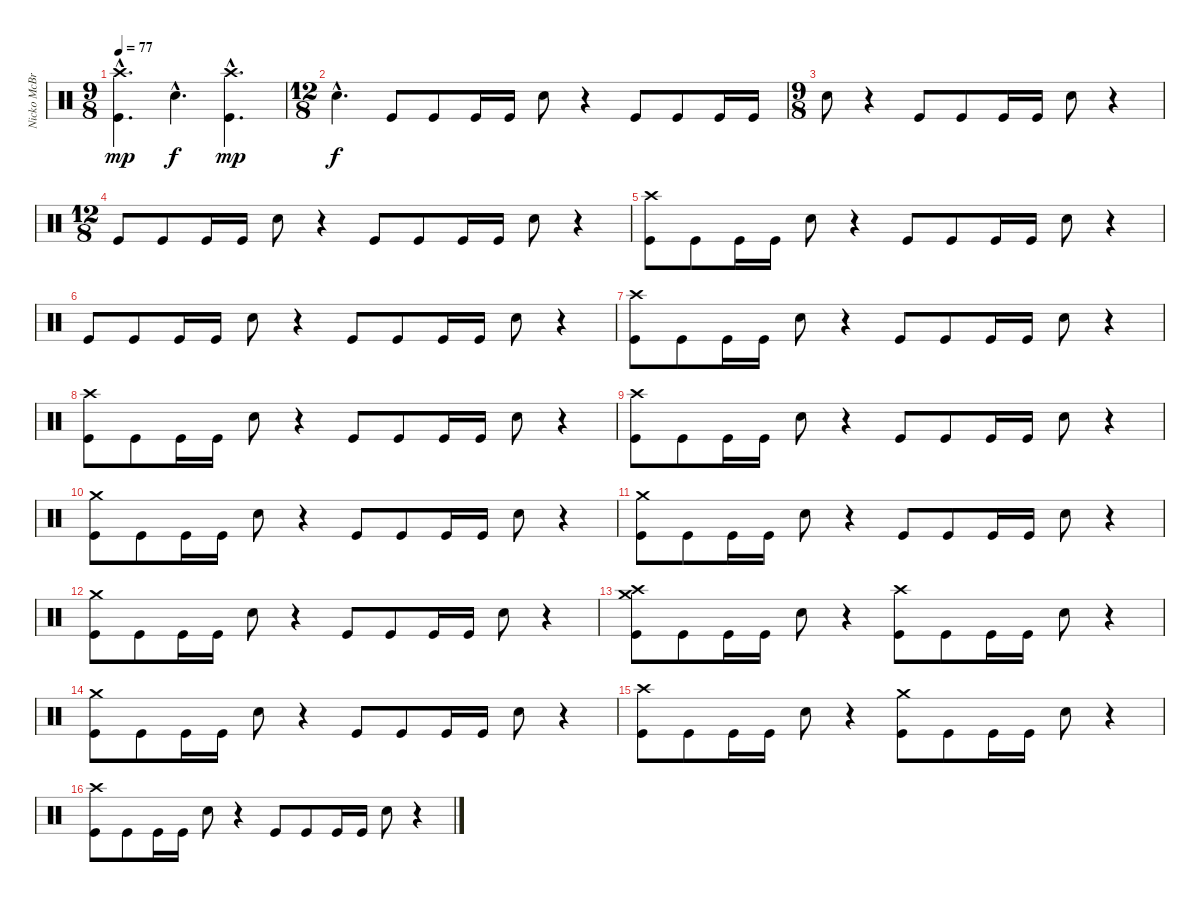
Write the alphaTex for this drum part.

\track ("Nicko McBrain" "Nicko McBr") {instrument percussion}
\staff {score}
\articulation defaults
\ts (9 8)
\tempo 77
\clef neutral
\ks c
("Crash high (hit)"{hac} "Kick (hit)"{hac}).4{d dy mp} "Snare (hit) 2"{hac}.4{d dy f} ("Crash high (hit)"{hac} "Kick (hit)"{hac}).4{d dy mp} |
\ts (12 8)
"Snare (hit) 2"{hac}.4{d dy f} "Kick (hit)".8 "Kick (hit)".8 "Kick (hit)".16 "Kick (hit)".16 "Snare (hit) 2".8 r.4 "Kick (hit)".8 "Kick (hit)".8 "Kick (hit)".16 "Kick (hit)".16 |
\ts (9 8)
"Snare (hit) 2".8 r.4 "Kick (hit)".8 "Kick (hit)".8 "Kick (hit)".16 "Kick (hit)".16 "Snare (hit) 2".8 r.4 |
\ts (12 8)
"Kick (hit)".8 "Kick (hit)".8 "Kick (hit)".16 "Kick (hit)".16 "Snare (hit) 2".8 r.4 "Kick (hit)".8 "Kick (hit)".8 "Kick (hit)".16 "Kick (hit)".16 "Snare (hit) 2".8 r.4 |
("Crash high (hit)" "Kick (hit)").8 "Kick (hit)".8 "Kick (hit)".16 "Kick (hit)".16 "Snare (hit) 2".8 r.4 "Kick (hit)".8 "Kick (hit)".8 "Kick (hit)".16 "Kick (hit)".16 "Snare (hit) 2".8 r.4 |
"Kick (hit)".8 "Kick (hit)".8 "Kick (hit)".16 "Kick (hit)".16 "Snare (hit) 2".8 r.4 "Kick (hit)".8 "Kick (hit)".8 "Kick (hit)".16 "Kick (hit)".16 "Snare (hit) 2".8 r.4 |
("Crash high (hit)" "Kick (hit)").8 "Kick (hit)".8 "Kick (hit)".16 "Kick (hit)".16 "Snare (hit) 2".8 r.4 "Kick (hit)".8 "Kick (hit)".8 "Kick (hit)".16 "Kick (hit)".16 "Snare (hit) 2".8 r.4 |
("Crash high (hit)" "Kick (hit)").8 "Kick (hit)".8 "Kick (hit)".16 "Kick (hit)".16 "Snare (hit) 2".8 r.4 "Kick (hit)".8 "Kick (hit)".8 "Kick (hit)".16 "Kick (hit)".16 "Snare (hit) 2".8 r.4 |
("Crash high (hit)" "Kick (hit)").8 "Kick (hit)".8 "Kick (hit)".16 "Kick (hit)".16 "Snare (hit) 2".8 r.4 "Kick (hit)".8 "Kick (hit)".8 "Kick (hit)".16 "Kick (hit)".16 "Snare (hit) 2".8 r.4 |
("Crash medium (hit)" "Kick (hit)").8 "Kick (hit)".8 "Kick (hit)".16 "Kick (hit)".16 "Snare (hit) 2".8 r.4 "Kick (hit)".8 "Kick (hit)".8 "Kick (hit)".16 "Kick (hit)".16 "Snare (hit) 2".8 r.4 |
("Crash medium (hit)" "Kick (hit)").8 "Kick (hit)".8 "Kick (hit)".16 "Kick (hit)".16 "Snare (hit) 2".8 r.4 "Kick (hit)".8 "Kick (hit)".8 "Kick (hit)".16 "Kick (hit)".16 "Snare (hit) 2".8 r.4 |
("Crash medium (hit)" "Kick (hit)").8 "Kick (hit)".8 "Kick (hit)".16 "Kick (hit)".16 "Snare (hit) 2".8 r.4 "Kick (hit)".8 "Kick (hit)".8 "Kick (hit)".16 "Kick (hit)".16 "Snare (hit) 2".8 r.4 |
("Crash high (hit)" "Crash medium (hit)" "Kick (hit)").8 "Kick (hit)".8 "Kick (hit)".16 "Kick (hit)".16 "Snare (hit) 2".8 r.4 ("Crash high (hit)" "Kick (hit)").8 "Kick (hit)".8 "Kick (hit)".16 "Kick (hit)".16 "Snare (hit) 2".8 r.4 |
("Crash medium (hit)" "Kick (hit)").8 "Kick (hit)".8 "Kick (hit)".16 "Kick (hit)".16 "Snare (hit) 2".8 r.4 "Kick (hit)".8 "Kick (hit)".8 "Kick (hit)".16 "Kick (hit)".16 "Snare (hit) 2".8 r.4 |
("Crash high (hit)" "Kick (hit)").8 "Kick (hit)".8 "Kick (hit)".16 "Kick (hit)".16 "Snare (hit) 2".8 r.4 ("Crash medium (hit)" "Kick (hit)").8 "Kick (hit)".8 "Kick (hit)".16 "Kick (hit)".16 "Snare (hit) 2".8 r.4 |
("Crash high (hit)" "Kick (hit)").8 "Kick (hit)".8 "Kick (hit)".16 "Kick (hit)".16 "Snare (hit) 2".8 r.4 "Kick (hit)".8 "Kick (hit)".8 "Kick (hit)".16 "Kick (hit)".16 "Snare (hit) 2".8 r.4
